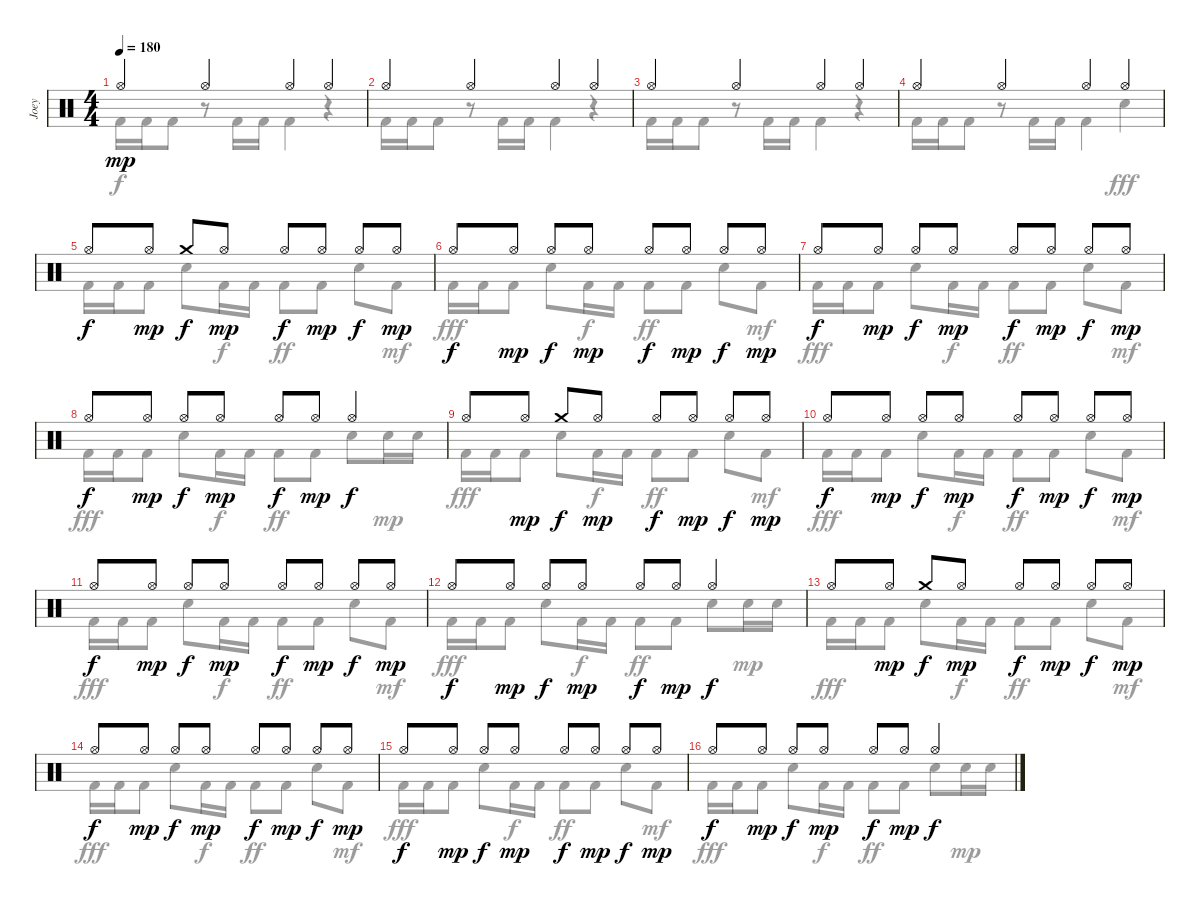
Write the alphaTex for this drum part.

\track ("Joey" "Joey") {instrument percussion}
\staff {score}
\articulation defaults
\voice
\ts (4 4)
\tempo 180
\clef neutral
\ks c "Hi-Hat (open)".4{dy mp} "Hi-Hat (open)".4 "Hi-Hat (open)".4 "Hi-Hat (open)".4
|
"Hi-Hat (open)".4 "Hi-Hat (open)".4 "Hi-Hat (open)".4 "Hi-Hat (open)".4 |
"Hi-Hat (open)".4 "Hi-Hat (open)".4 "Hi-Hat (open)".4 "Hi-Hat (open)".4 |
"Hi-Hat (open)".4 "Hi-Hat (open)".4 "Hi-Hat (open)".4 "Hi-Hat (open)".4 |
"Hi-Hat (open)".8{dy f} "Hi-Hat (open)".8{dy mp} "Crash medium (hit)".8{dy f} "Hi-Hat (open)".8{dy mp} "Hi-Hat (open)".8{dy f} "Hi-Hat (open)".8{dy mp} "Hi-Hat (open)".8{dy f} "Hi-Hat (open)".8{dy mp} |
"Hi-Hat (open)".8{dy f} "Hi-Hat (open)".8{dy mp} "Hi-Hat (open)".8{dy f} "Hi-Hat (open)".8{dy mp} "Hi-Hat (open)".8{dy f} "Hi-Hat (open)".8{dy mp} "Hi-Hat (open)".8{dy f} "Hi-Hat (open)".8{dy mp} |
"Hi-Hat (open)".8{dy f} "Hi-Hat (open)".8{dy mp} "Hi-Hat (open)".8{dy f} "Hi-Hat (open)".8{dy mp} "Hi-Hat (open)".8{dy f} "Hi-Hat (open)".8{dy mp} "Hi-Hat (open)".8{dy f} "Hi-Hat (open)".8{dy mp} |
"Hi-Hat (open)".8{dy f} "Hi-Hat (open)".8{dy mp} "Hi-Hat (open)".8{dy f} "Hi-Hat (open)".8{dy mp} "Hi-Hat (open)".8{dy f} "Hi-Hat (open)".8{dy mp} "Hi-Hat (open)".4{dy f} |
"Hi-Hat (open)".8 "Hi-Hat (open)".8{dy mp} "Crash medium (hit)".8{dy f} "Hi-Hat (open)".8{dy mp} "Hi-Hat (open)".8{dy f} "Hi-Hat (open)".8{dy mp} "Hi-Hat (open)".8{dy f} "Hi-Hat (open)".8{dy mp} |
"Hi-Hat (open)".8{dy f} "Hi-Hat (open)".8{dy mp} "Hi-Hat (open)".8{dy f} "Hi-Hat (open)".8{dy mp} "Hi-Hat (open)".8{dy f} "Hi-Hat (open)".8{dy mp} "Hi-Hat (open)".8{dy f} "Hi-Hat (open)".8{dy mp} |
"Hi-Hat (open)".8{dy f} "Hi-Hat (open)".8{dy mp} "Hi-Hat (open)".8{dy f} "Hi-Hat (open)".8{dy mp} "Hi-Hat (open)".8{dy f} "Hi-Hat (open)".8{dy mp} "Hi-Hat (open)".8{dy f} "Hi-Hat (open)".8{dy mp} |
"Hi-Hat (open)".8{dy f} "Hi-Hat (open)".8{dy mp} "Hi-Hat (open)".8{dy f} "Hi-Hat (open)".8{dy mp} "Hi-Hat (open)".8{dy f} "Hi-Hat (open)".8{dy mp} "Hi-Hat (open)".4{dy f} |
"Hi-Hat (open)".8 "Hi-Hat (open)".8{dy mp} "Crash medium (hit)".8{dy f} "Hi-Hat (open)".8{dy mp} "Hi-Hat (open)".8{dy f} "Hi-Hat (open)".8{dy mp} "Hi-Hat (open)".8{dy f} "Hi-Hat (open)".8{dy mp} |
"Hi-Hat (open)".8{dy f} "Hi-Hat (open)".8{dy mp} "Hi-Hat (open)".8{dy f} "Hi-Hat (open)".8{dy mp} "Hi-Hat (open)".8{dy f} "Hi-Hat (open)".8{dy mp} "Hi-Hat (open)".8{dy f} "Hi-Hat (open)".8{dy mp} |
"Hi-Hat (open)".8{dy f} "Hi-Hat (open)".8{dy mp} "Hi-Hat (open)".8{dy f} "Hi-Hat (open)".8{dy mp} "Hi-Hat (open)".8{dy f} "Hi-Hat (open)".8{dy mp} "Hi-Hat (open)".8{dy f} "Hi-Hat (open)".8{dy mp} |
"Hi-Hat (open)".8{dy f} "Hi-Hat (open)".8{dy mp} "Hi-Hat (open)".8{dy f} "Hi-Hat (open)".8{dy mp} "Hi-Hat (open)".8{dy f} "Hi-Hat (open)".8{dy mp} "Hi-Hat (open)".4{dy f}
\voice
\clef neutral
\ottava regular
\simile none
\ks c "Kick (hit) 2".16{dy f} "Kick (hit) 2".16 "Kick (hit) 2".8
r.8 "Kick (hit) 2".16 "Kick (hit) 2".16 "Kick (hit) 2".4 r.4 |
"Kick (hit) 2".16 "Kick (hit) 2".16 "Kick (hit) 2".8 r.8 "Kick (hit) 2".16 "Kick (hit) 2".16 "Kick (hit) 2".4 r.4 |
"Kick (hit) 2".16 "Kick (hit) 2".16 "Kick (hit) 2".8 r.8 "Kick (hit) 2".16 "Kick (hit) 2".16 "Kick (hit) 2".4 r.4 |
"Kick (hit) 2".16 "Kick (hit) 2".16 "Kick (hit) 2".8 r.8 "Kick (hit) 2".16 "Kick (hit) 2".16 "Kick (hit) 2".4 "Electric Snare (hit)".4{dy fff} |
"Kick (hit) 2".16 "Kick (hit) 2".16 "Kick (hit) 2".8 "Electric Snare (hit)".8 "Kick (hit) 2".16{dy f} "Kick (hit) 2".16 "Kick (hit) 2".8{dy ff} "Kick (hit) 2".8 "Electric Snare (hit)".8 "Kick (hit) 2".8{dy mf} |
"Kick (hit) 2".16{dy fff} "Kick (hit) 2".16 "Kick (hit) 2".8 "Electric Snare (hit)".8 "Kick (hit) 2".16{dy f} "Kick (hit) 2".16 "Kick (hit) 2".8{dy ff} "Kick (hit) 2".8 "Electric Snare (hit)".8 "Kick (hit) 2".8{dy mf} |
"Kick (hit) 2".16{dy fff} "Kick (hit) 2".16 "Kick (hit) 2".8 "Electric Snare (hit)".8 "Kick (hit) 2".16{dy f} "Kick (hit) 2".16 "Kick (hit) 2".8{dy ff} "Kick (hit) 2".8 "Electric Snare (hit)".8 "Kick (hit) 2".8{dy mf} |
"Kick (hit) 2".16{dy fff} "Kick (hit) 2".16 "Kick (hit) 2".8 "Electric Snare (hit)".8 "Kick (hit) 2".16{dy f} "Kick (hit) 2".16 "Kick (hit) 2".8{dy ff} "Kick (hit) 2".8 "Electric Snare (hit)".8 "Electric Snare (hit)".16{dy mp} "Electric Snare (hit)".16 |
"Kick (hit) 2".16{dy fff} "Kick (hit) 2".16 "Kick (hit) 2".8 "Electric Snare (hit)".8 "Kick (hit) 2".16{dy f} "Kick (hit) 2".16 "Kick (hit) 2".8{dy ff} "Kick (hit) 2".8 "Electric Snare (hit)".8 "Kick (hit) 2".8{dy mf} |
"Kick (hit) 2".16{dy fff} "Kick (hit) 2".16 "Kick (hit) 2".8 "Electric Snare (hit)".8 "Kick (hit) 2".16{dy f} "Kick (hit) 2".16 "Kick (hit) 2".8{dy ff} "Kick (hit) 2".8 "Electric Snare (hit)".8 "Kick (hit) 2".8{dy mf} |
"Kick (hit) 2".16{dy fff} "Kick (hit) 2".16 "Kick (hit) 2".8 "Electric Snare (hit)".8 "Kick (hit) 2".16{dy f} "Kick (hit) 2".16 "Kick (hit) 2".8{dy ff} "Kick (hit) 2".8 "Electric Snare (hit)".8 "Kick (hit) 2".8{dy mf} |
"Kick (hit) 2".16{dy fff} "Kick (hit) 2".16 "Kick (hit) 2".8 "Electric Snare (hit)".8 "Kick (hit) 2".16{dy f} "Kick (hit) 2".16 "Kick (hit) 2".8{dy ff} "Kick (hit) 2".8 "Electric Snare (hit)".8 "Electric Snare (hit)".16{dy mp} "Electric Snare (hit)".16 |
"Kick (hit) 2".16{dy fff} "Kick (hit) 2".16 "Kick (hit) 2".8 "Electric Snare (hit)".8 "Kick (hit) 2".16{dy f} "Kick (hit) 2".16 "Kick (hit) 2".8{dy ff} "Kick (hit) 2".8 "Electric Snare (hit)".8 "Kick (hit) 2".8{dy mf} |
"Kick (hit) 2".16{dy fff} "Kick (hit) 2".16 "Kick (hit) 2".8 "Electric Snare (hit)".8 "Kick (hit) 2".16{dy f} "Kick (hit) 2".16 "Kick (hit) 2".8{dy ff} "Kick (hit) 2".8 "Electric Snare (hit)".8 "Kick (hit) 2".8{dy mf} |
"Kick (hit) 2".16{dy fff} "Kick (hit) 2".16 "Kick (hit) 2".8 "Electric Snare (hit)".8 "Kick (hit) 2".16{dy f} "Kick (hit) 2".16 "Kick (hit) 2".8{dy ff} "Kick (hit) 2".8 "Electric Snare (hit)".8 "Kick (hit) 2".8{dy mf} |
"Kick (hit) 2".16{dy fff} "Kick (hit) 2".16 "Kick (hit) 2".8 "Electric Snare (hit)".8 "Kick (hit) 2".16{dy f} "Kick (hit) 2".16 "Kick (hit) 2".8{dy ff} "Kick (hit) 2".8 "Electric Snare (hit)".8 "Electric Snare (hit)".16{dy mp} "Electric Snare (hit)".16
